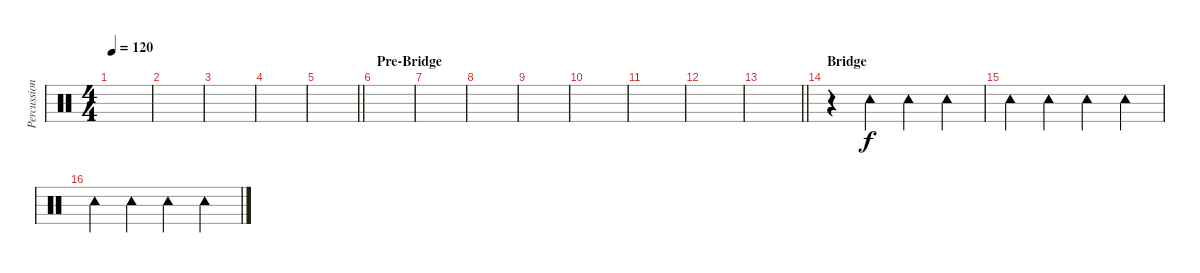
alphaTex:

\track ("Percussions" "Percussion") {instrument percussion}
\staff {score}
\articulation defaults
\ts (4 4)
\tempo 120
\clef neutral
\ks c
|
|
|
|
\barLineRight lightlight
|
\section ("" "Pre-Bridge")
|
|
|
|
|
|
|
\barLineRight lightlight
|
\section ("" "Bridge")
r.4 "Tambourine (hit)".4{dy f} "Tambourine (hit)".4 "Tambourine (hit)".4 |
"Tambourine (hit)".4 "Tambourine (hit)".4 "Tambourine (hit)".4 "Tambourine (hit)".4 |
"Tambourine (hit)".4 "Tambourine (hit)".4 "Tambourine (hit)".4 "Tambourine (hit)".4
